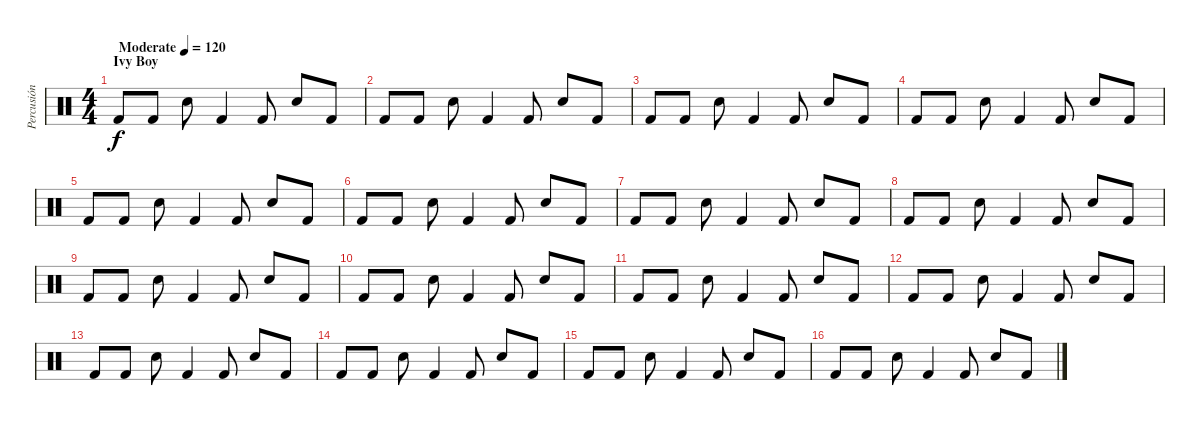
\track ("Percusión" "Percusión") {instrument percussion}
\staff {score}
\articulation defaults
\ts (4 4)
\section ("" "Ivy Boy")
\tempo (120 "Moderate")
\clef neutral
\ks c "Kick (hit) 2".8{dy f} "Kick (hit) 2".8 "Snare (hit) 2".8 "Kick (hit) 2".4 "Kick (hit) 2".8 "Snare (hit) 2".8 "Kick (hit) 2".8
|
"Kick (hit) 2".8 "Kick (hit) 2".8 "Snare (hit) 2".8 "Kick (hit) 2".4 "Kick (hit) 2".8 "Snare (hit) 2".8 "Kick (hit) 2".8 |
"Kick (hit) 2".8 "Kick (hit) 2".8 "Snare (hit) 2".8 "Kick (hit) 2".4 "Kick (hit) 2".8 "Snare (hit) 2".8 "Kick (hit) 2".8 |
"Kick (hit) 2".8 "Kick (hit) 2".8 "Snare (hit) 2".8 "Kick (hit) 2".4 "Kick (hit) 2".8 "Snare (hit) 2".8 "Kick (hit) 2".8 |
"Kick (hit) 2".8 "Kick (hit) 2".8 "Snare (hit) 2".8 "Kick (hit) 2".4 "Kick (hit) 2".8 "Snare (hit) 2".8 "Kick (hit) 2".8 |
"Kick (hit) 2".8 "Kick (hit) 2".8 "Snare (hit) 2".8 "Kick (hit) 2".4 "Kick (hit) 2".8 "Snare (hit) 2".8 "Kick (hit) 2".8 |
"Kick (hit) 2".8 "Kick (hit) 2".8 "Snare (hit) 2".8 "Kick (hit) 2".4 "Kick (hit) 2".8 "Snare (hit) 2".8 "Kick (hit) 2".8 |
"Kick (hit) 2".8 "Kick (hit) 2".8 "Snare (hit) 2".8 "Kick (hit) 2".4 "Kick (hit) 2".8 "Snare (hit) 2".8 "Kick (hit) 2".8 |
"Kick (hit) 2".8 "Kick (hit) 2".8 "Snare (hit) 2".8 "Kick (hit) 2".4 "Kick (hit) 2".8 "Snare (hit) 2".8 "Kick (hit) 2".8 |
"Kick (hit) 2".8 "Kick (hit) 2".8 "Snare (hit) 2".8 "Kick (hit) 2".4 "Kick (hit) 2".8 "Snare (hit) 2".8 "Kick (hit) 2".8 |
"Kick (hit) 2".8 "Kick (hit) 2".8 "Snare (hit) 2".8 "Kick (hit) 2".4 "Kick (hit) 2".8 "Snare (hit) 2".8 "Kick (hit) 2".8 |
"Kick (hit) 2".8 "Kick (hit) 2".8 "Snare (hit) 2".8 "Kick (hit) 2".4 "Kick (hit) 2".8 "Snare (hit) 2".8 "Kick (hit) 2".8 |
"Kick (hit) 2".8 "Kick (hit) 2".8 "Snare (hit) 2".8 "Kick (hit) 2".4 "Kick (hit) 2".8 "Snare (hit) 2".8 "Kick (hit) 2".8 |
"Kick (hit) 2".8 "Kick (hit) 2".8 "Snare (hit) 2".8 "Kick (hit) 2".4 "Kick (hit) 2".8 "Snare (hit) 2".8 "Kick (hit) 2".8 |
"Kick (hit) 2".8 "Kick (hit) 2".8 "Snare (hit) 2".8 "Kick (hit) 2".4 "Kick (hit) 2".8 "Snare (hit) 2".8 "Kick (hit) 2".8 |
"Kick (hit) 2".8 "Kick (hit) 2".8 "Snare (hit) 2".8 "Kick (hit) 2".4 "Kick (hit) 2".8 "Snare (hit) 2".8 "Kick (hit) 2".8
